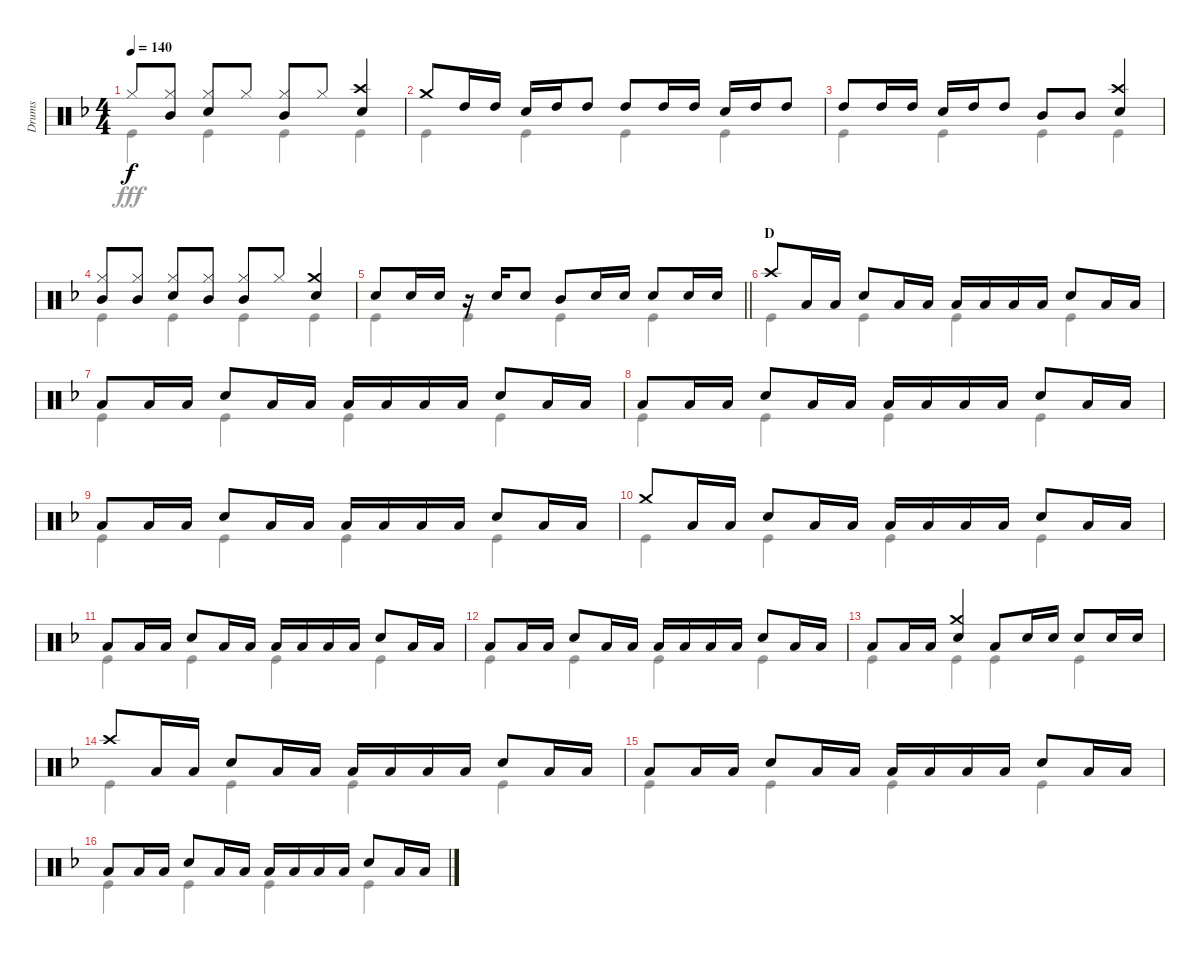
\track ("Drums" "Drums") {instrument percussion}
\staff {score}
\articulation defaults
\voice
\ts (4 4)
\tempo 140
\clef neutral
\ks f "Hi-Hat (closed)".8{dy f}
("Hi-Hat (closed)" "Mid Tom (hit)").8 ("Hi-Hat (closed)" "Snare (hit) 2").8 "Hi-Hat (closed)".8 ("Hi-Hat (closed)" "Mid Tom (hit)").8 "Hi-Hat (closed)".8 ("Crash high (hit)" "Snare (hit) 2").4 |
"Crash medium (hit)".8 "High Tom (hit)".16 "High Tom (hit)".16 "Snare (hit) 2".16 "High Tom (hit)".16 "High Tom (hit)".8 "High Tom (hit)".8 "High Tom (hit)".16 "High Tom (hit)".16 "Snare (hit) 2".16 "High Tom (hit)".16 "High Tom (hit)".8 |
"High Tom (hit)".8 "High Tom (hit)".16 "High Tom (hit)".16 "Snare (hit) 2".16 "High Tom (hit)".16 "High Tom (hit)".8 "Mid Tom (hit)".8 "Mid Tom (hit)".8 ("Crash high (hit)" "Snare (hit) 2").4 |
("Hi-Hat (closed)" "Mid Tom (hit)").8 ("Hi-Hat (closed)" "Mid Tom (hit)").8 ("Hi-Hat (closed)" "Snare (hit) 2").8 ("Hi-Hat (closed)" "Mid Tom (hit)").8 ("Hi-Hat (closed)" "Mid Tom (hit)").8 "Hi-Hat (closed)".8 ("Crash medium (hit)" "Snare (hit) 2").4 |
\barLineRight lightlight "Snare (hit) 2".8 "Snare (hit) 2".16 "Snare (hit) 2".16
r.16 "Snare (hit) 2".16 "Snare (hit) 2".8 "Mid Tom (hit)".8 "Snare (hit) 2".16 "Snare (hit) 2".16 "Snare (hit) 2".8 "Snare (hit) 2".16 "Snare (hit) 2".16 |
\section ("" "D")
"Crash high (hit)".8 "Low Tom (hit)".16 "Low Tom (hit)".16 "Snare (hit) 2".8 "Low Tom (hit)".16 "Low Tom (hit)".16 "Low Tom (hit)".16 "Low Tom (hit)".16 "Low Tom (hit)".16 "Low Tom (hit)".16 "Snare (hit) 2".8 "Low Tom (hit)".16 "Low Tom (hit)".16 |
"Low Tom (hit)".8 "Low Tom (hit)".16 "Low Tom (hit)".16 "Snare (hit) 2".8 "Low Tom (hit)".16 "Low Tom (hit)".16 "Low Tom (hit)".16 "Low Tom (hit)".16 "Low Tom (hit)".16 "Low Tom (hit)".16 "Snare (hit) 2".8 "Low Tom (hit)".16 "Low Tom (hit)".16 |
"Low Tom (hit)".8 "Low Tom (hit)".16 "Low Tom (hit)".16 "Snare (hit) 2".8 "Low Tom (hit)".16 "Low Tom (hit)".16 "Low Tom (hit)".16 "Low Tom (hit)".16 "Low Tom (hit)".16 "Low Tom (hit)".16 "Snare (hit) 2".8 "Low Tom (hit)".16 "Low Tom (hit)".16 |
"Low Tom (hit)".8 "Low Tom (hit)".16 "Low Tom (hit)".16 "Snare (hit) 2".8 "Low Tom (hit)".16 "Low Tom (hit)".16 "Low Tom (hit)".16 "Low Tom (hit)".16 "Low Tom (hit)".16 "Low Tom (hit)".16 "Snare (hit) 2".8 "Low Tom (hit)".16 "Low Tom (hit)".16 |
"Crash medium (hit)".8 "Low Tom (hit)".16 "Low Tom (hit)".16 "Snare (hit) 2".8 "Low Tom (hit)".16 "Low Tom (hit)".16 "Low Tom (hit)".16 "Low Tom (hit)".16 "Low Tom (hit)".16 "Low Tom (hit)".16 "Snare (hit) 2".8 "Low Tom (hit)".16 "Low Tom (hit)".16 |
"Low Tom (hit)".8 "Low Tom (hit)".16 "Low Tom (hit)".16 "Snare (hit) 2".8 "Low Tom (hit)".16 "Low Tom (hit)".16 "Low Tom (hit)".16 "Low Tom (hit)".16 "Low Tom (hit)".16 "Low Tom (hit)".16 "Snare (hit) 2".8 "Low Tom (hit)".16 "Low Tom (hit)".16 |
"Low Tom (hit)".8 "Low Tom (hit)".16 "Low Tom (hit)".16 "Snare (hit) 2".8 "Low Tom (hit)".16 "Low Tom (hit)".16 "Low Tom (hit)".16 "Low Tom (hit)".16 "Low Tom (hit)".16 "Low Tom (hit)".16 "Snare (hit) 2".8 "Low Tom (hit)".16 "Low Tom (hit)".16 |
"Low Tom (hit)".8 "Low Tom (hit)".16 "Low Tom (hit)".16 ("Crash medium (hit)" "Snare (hit) 2").4 "Low Tom (hit)".8 "Snare (hit) 2".16 "Snare (hit) 2".16 "Snare (hit) 2".8 "Snare (hit) 2".16 "Snare (hit) 2".16 |
"Crash high (hit)".8 "Low Tom (hit)".16 "Low Tom (hit)".16 "Snare (hit) 2".8 "Low Tom (hit)".16 "Low Tom (hit)".16 "Low Tom (hit)".16 "Low Tom (hit)".16 "Low Tom (hit)".16 "Low Tom (hit)".16 "Snare (hit) 2".8 "Low Tom (hit)".16 "Low Tom (hit)".16 |
"Low Tom (hit)".8 "Low Tom (hit)".16 "Low Tom (hit)".16 "Snare (hit) 2".8 "Low Tom (hit)".16 "Low Tom (hit)".16 "Low Tom (hit)".16 "Low Tom (hit)".16 "Low Tom (hit)".16 "Low Tom (hit)".16 "Snare (hit) 2".8 "Low Tom (hit)".16 "Low Tom (hit)".16 |
"Low Tom (hit)".8 "Low Tom (hit)".16 "Low Tom (hit)".16 "Snare (hit) 2".8 "Low Tom (hit)".16 "Low Tom (hit)".16 "Low Tom (hit)".16 "Low Tom (hit)".16 "Low Tom (hit)".16 "Low Tom (hit)".16 "Snare (hit) 2".8 "Low Tom (hit)".16 "Low Tom (hit)".16
\voice
\clef neutral
\ottava regular
\simile none
\ks f "Kick (hit)".4{dy fff} "Kick (hit)".4 "Kick (hit)".4 "Kick (hit)".4
|
"Kick (hit)".4 "Kick (hit)".4 "Kick (hit)".4 "Kick (hit)".4 |
"Kick (hit)".4 "Kick (hit)".4 "Kick (hit)".4 "Kick (hit)".4 |
"Kick (hit)".4 "Kick (hit)".4 "Kick (hit)".4 "Kick (hit)".4 |
\barLineRight lightlight "Kick (hit)".4 "Kick (hit)".4 "Kick (hit)".4 "Kick (hit)".4
|
"Kick (hit)".4 "Kick (hit)".4 "Kick (hit)".4 "Kick (hit)".4 |
"Kick (hit)".4 "Kick (hit)".4 "Kick (hit)".4 "Kick (hit)".4 |
"Kick (hit)".4 "Kick (hit)".4 "Kick (hit)".4 "Kick (hit)".4 |
"Kick (hit)".4 "Kick (hit)".4 "Kick (hit)".4 "Kick (hit)".4 |
"Kick (hit)".4 "Kick (hit)".4 "Kick (hit)".4 "Kick (hit)".4 |
"Kick (hit)".4 "Kick (hit)".4 "Kick (hit)".4 "Kick (hit)".4 |
"Kick (hit)".4 "Kick (hit)".4 "Kick (hit)".4 "Kick (hit)".4 |
"Kick (hit)".4 "Kick (hit)".4 "Kick (hit)".4 "Kick (hit)".4 |
"Kick (hit)".4 "Kick (hit)".4 "Kick (hit)".4 "Kick (hit)".4 |
"Kick (hit)".4 "Kick (hit)".4 "Kick (hit)".4 "Kick (hit)".4 |
"Kick (hit)".4 "Kick (hit)".4 "Kick (hit)".4 "Kick (hit)".4
